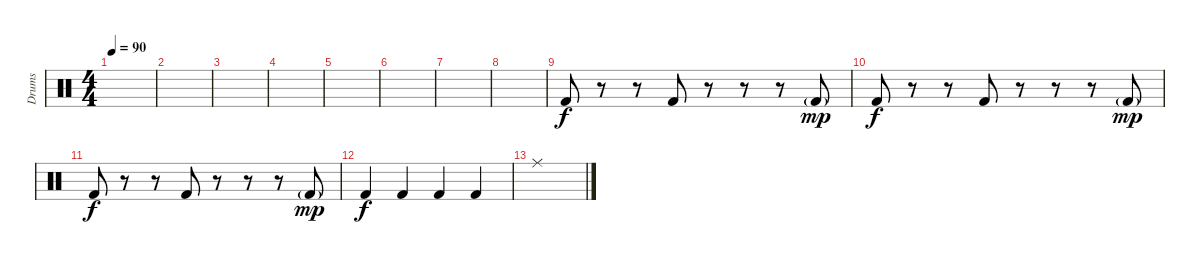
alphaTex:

\track ("Drums" "Drums") {instrument percussion}
\staff {score}
\articulation defaults
\ts (4 4)
\tempo 90
\clef neutral
\ks c
|
|
|
|
|
|
|
|
"Kick (hit) 2".8 r.8 r.8 "Kick (hit) 2".8 r.8 r.8 r.8 "Kick (hit) 2"{g}.8{dy mp} |
"Kick (hit) 2".8{dy f} r.8 r.8 "Kick (hit) 2".8 r.8 r.8 r.8 "Kick (hit) 2"{g}.8{dy mp} |
"Kick (hit) 2".8{dy f} r.8 r.8 "Kick (hit) 2".8 r.8 r.8 r.8 "Kick (hit) 2"{g}.8{dy mp} |
"Kick (hit) 2".4{dy f} "Kick (hit) 2".4 "Kick (hit) 2".4 "Kick (hit) 2".4 |
"Ride (middle)".1
